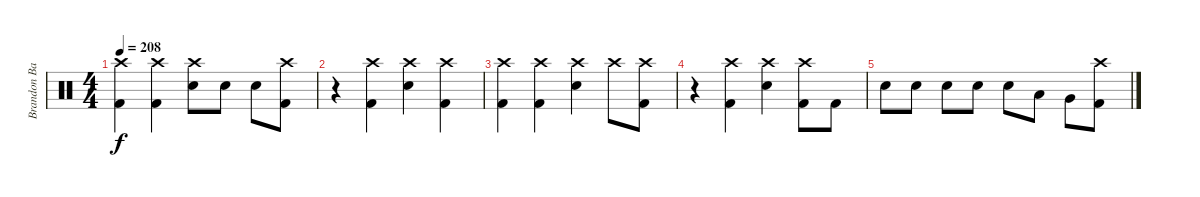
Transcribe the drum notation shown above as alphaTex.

\track ("Brandon Barnes - Drums" "Brandon Ba") {instrument percussion}
\staff {score}
\articulation defaults
\ts (4 4)
\tempo 208
\clef neutral
\ks c
("Kick (hit) 2" "Crash high (hit)").4{dy f} ("Kick (hit) 2" "Crash high (hit)").4 ("Snare (hit) 2" "Crash high (hit)").8 "Snare (hit) 2".8 "Snare (hit) 2".8 ("Kick (hit) 2" "Crash high (hit)").8 |
r.4 ("Kick (hit) 2" "Crash high (hit)").4 ("Snare (hit) 2" "Crash high (hit)").4 ("Kick (hit) 2" "Crash high (hit)").4 |
("Kick (hit) 2" "Crash high (hit)").4 ("Kick (hit) 2" "Crash high (hit)").4 ("Snare (hit) 2" "Crash high (hit)").4 "Crash high (hit)".8 ("Kick (hit) 2" "Crash high (hit)").8 |
r.4 ("Kick (hit) 2" "Crash high (hit)").4 ("Snare (hit) 2" "Crash high (hit)").4 ("Kick (hit) 2" "Crash high (hit)").8 "Kick (hit) 2".8 |
"Snare (hit) 2".8 "Snare (hit) 2".8 "Snare (hit) 2".8 "Snare (hit) 2".8 "Snare (hit) 2".8 "Low Tom (hit)".8 "Very Low Tom (hit)".8 ("Kick (hit) 2" "Crash high (hit)").8
